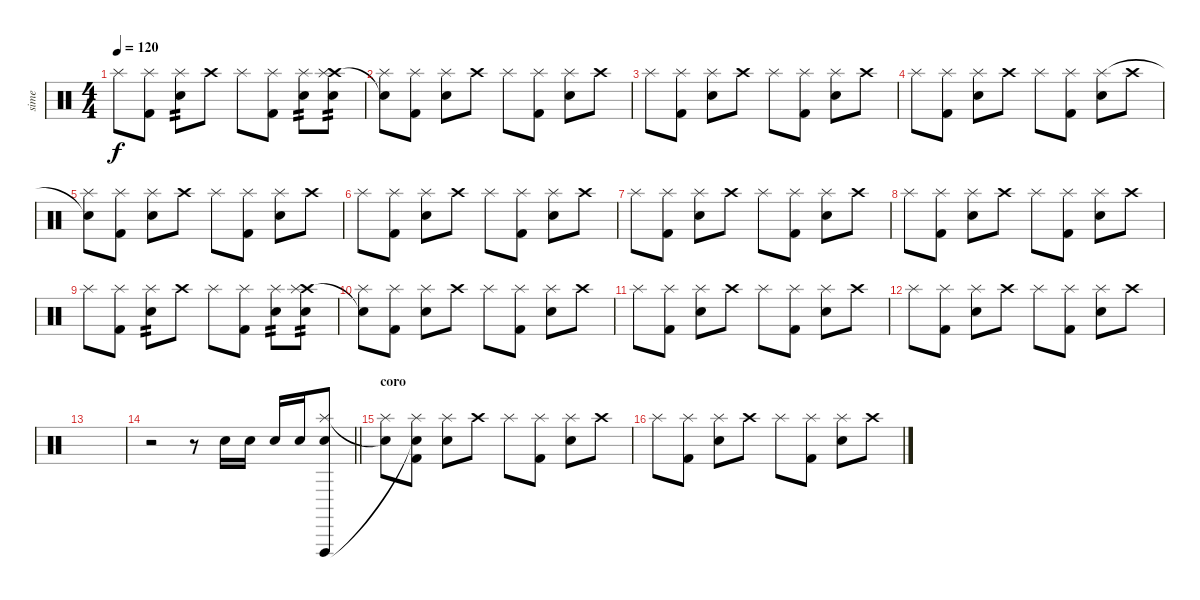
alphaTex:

\track ("sime" "sime") {instrument percussion}
\staff {score}
\articulation defaults
\ts (4 4)
\tempo 120
\clef neutral
\ks c "Splash (hit)".8{dy f}
("Kick (hit) 2" "Splash (hit)").8 ("Snare (hit) 2" "Splash (hit)").8{tp 2} "Crash high (hit)".8 "Splash (hit)".8 ("Kick (hit) 2" "Splash (hit)").8 ("Snare (hit) 2" "Splash (hit)").8{tp 2} ("Snare (hit) 2" "Crash high (hit)" "Splash (hit)").8{tp 2} |
("Splash (hit)" "Snare (hit)"{t}).8 ("Kick (hit) 2" "Splash (hit)").8 ("Snare (hit) 2" "Splash (hit)").8 "Crash high (hit)".8 "Splash (hit)".8 ("Kick (hit) 2" "Splash (hit)").8 ("Snare (hit) 2" "Splash (hit)").8 "Crash high (hit)".8 |
"Splash (hit)".8 ("Kick (hit) 2" "Splash (hit)").8 ("Snare (hit) 2" "Splash (hit)").8 "Crash high (hit)".8 "Splash (hit)".8 ("Kick (hit) 2" "Splash (hit)").8 ("Snare (hit) 2" "Splash (hit)").8 "Crash high (hit)".8 |
"Splash (hit)".8 ("Kick (hit) 2" "Splash (hit)").8 ("Snare (hit) 2" "Splash (hit)").8 "Crash high (hit)".8 "Splash (hit)".8 ("Kick (hit) 2" "Splash (hit)").8 ("Snare (hit) 2" "Splash (hit)").8 "Crash high (hit)".8 |
("Splash (hit)" "Snare (hit)"{t}).8 ("Kick (hit) 2" "Splash (hit)").8 ("Snare (hit) 2" "Splash (hit)").8 "Crash high (hit)".8 "Splash (hit)".8 ("Kick (hit) 2" "Splash (hit)").8 ("Snare (hit) 2" "Splash (hit)").8 "Crash high (hit)".8 |
"Splash (hit)".8 ("Kick (hit) 2" "Splash (hit)").8 ("Snare (hit) 2" "Splash (hit)").8 "Crash high (hit)".8 "Splash (hit)".8 ("Kick (hit) 2" "Splash (hit)").8 ("Snare (hit) 2" "Splash (hit)").8 "Crash high (hit)".8 |
"Splash (hit)".8 ("Kick (hit) 2" "Splash (hit)").8 ("Snare (hit) 2" "Splash (hit)").8 "Crash high (hit)".8 "Splash (hit)".8 ("Kick (hit) 2" "Splash (hit)").8 ("Snare (hit) 2" "Splash (hit)").8 "Crash high (hit)".8 |
"Splash (hit)".8 ("Kick (hit) 2" "Splash (hit)").8 ("Snare (hit) 2" "Splash (hit)").8 "Crash high (hit)".8 "Splash (hit)".8 ("Kick (hit) 2" "Splash (hit)").8 ("Snare (hit) 2" "Splash (hit)").8 "Crash high (hit)".8 |
"Splash (hit)".8 ("Kick (hit) 2" "Splash (hit)").8 ("Snare (hit) 2" "Splash (hit)").8{tp 2} "Crash high (hit)".8 "Splash (hit)".8 ("Kick (hit) 2" "Splash (hit)").8 ("Snare (hit) 2" "Splash (hit)").8{tp 2} ("Snare (hit) 2" "Crash high (hit)" "Splash (hit)").8{tp 2} |
("Splash (hit)" "Snare (hit)"{t}).8 ("Kick (hit) 2" "Splash (hit)").8 ("Snare (hit) 2" "Splash (hit)").8 "Crash high (hit)".8 "Splash (hit)".8 ("Kick (hit) 2" "Splash (hit)").8 ("Snare (hit) 2" "Splash (hit)").8 "Crash high (hit)".8 |
"Splash (hit)".8 ("Kick (hit) 2" "Splash (hit)").8 ("Snare (hit) 2" "Splash (hit)").8 "Crash high (hit)".8 "Splash (hit)".8 ("Kick (hit) 2" "Splash (hit)").8 ("Snare (hit) 2" "Splash (hit)").8 "Crash high (hit)".8 |
"Splash (hit)".8 ("Kick (hit) 2" "Splash (hit)").8 ("Snare (hit) 2" "Splash (hit)").8 "Crash high (hit)".8 "Splash (hit)".8 ("Kick (hit) 2" "Splash (hit)").8 ("Snare (hit) 2" "Splash (hit)").8 "Crash high (hit)".8 |
|
\barLineRight lightlight
r.2 r.8 "Snare (hit) 2".16 "Snare (hit) 2".16 "Snare (hit) 2".16 "Snare (hit) 2".16 ("Snare (hit) 2" "Splash (hit)" "Vibraslap (hit)").8 |
\section ("" "coro")
("Splash (hit)" "Snare (hit)"{t}).8 ("Kick (hit) 2" "Splash (hit)" "Snare (hit)"{t}).8 ("Snare (hit) 2" "Splash (hit)").8 "Crash high (hit)".8 "Splash (hit)".8 ("Kick (hit) 2" "Splash (hit)").8 ("Snare (hit) 2" "Splash (hit)").8 "Crash high (hit)".8 |
"Splash (hit)".8 ("Kick (hit) 2" "Splash (hit)").8 ("Snare (hit) 2" "Splash (hit)").8 "Crash high (hit)".8 "Splash (hit)".8 ("Kick (hit) 2" "Splash (hit)").8 ("Snare (hit) 2" "Splash (hit)").8 "Crash high (hit)".8
